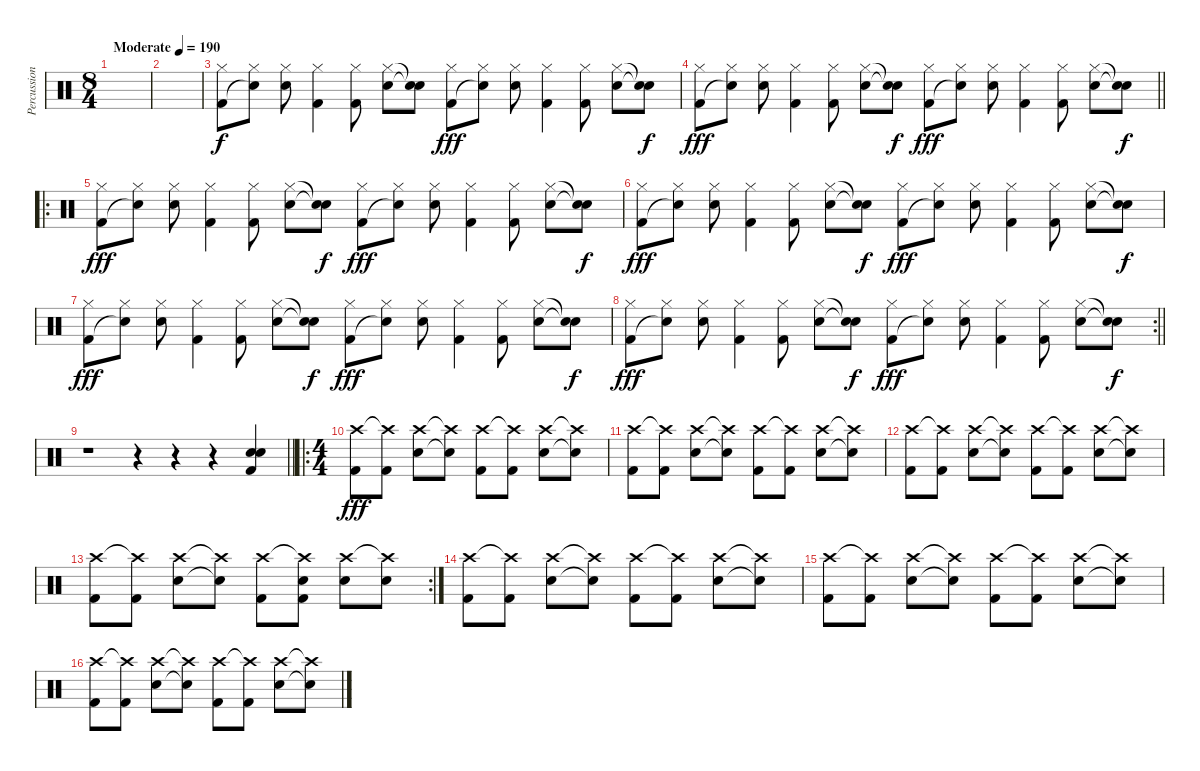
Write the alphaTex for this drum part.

\track ("Percussion" "Percussion") {instrument percussion}
\staff {score}
\articulation defaults
\ts (8 4)
\section ("" "")
\tempo (190 "Moderate")
\clef neutral
\ks c
|
|
("Hi-Hat (closed)" "Kick (hit) 2").8 ("Hi-Hat (closed)" "Snare (hit)"{t}).8 ("Hi-Hat (closed)" "Snare (hit) 2").8 ("Hi-Hat (closed)" "Kick (hit) 2").4 ("Hi-Hat (closed)" "Kick (hit) 2").8 ("Hi-Hat (closed)" "Snare (hit) 2").8 ("Snare (hit)"{t} "Snare (hit)"{t}).8{dy f} ("Hi-Hat (closed)" "Kick (hit) 2").8{dy fff} ("Hi-Hat (closed)" "Snare (hit)"{t}).8 ("Hi-Hat (closed)" "Snare (hit) 2").8 ("Hi-Hat (closed)" "Kick (hit) 2").4 ("Hi-Hat (closed)" "Kick (hit) 2").8 ("Hi-Hat (closed)" "Snare (hit) 2").8 ("Snare (hit)"{t} "Snare (hit)"{t}).8{dy f} |
\barLineRight lightlight
("Hi-Hat (closed)" "Kick (hit) 2").8{dy fff} ("Hi-Hat (closed)" "Snare (hit)"{t}).8 ("Hi-Hat (closed)" "Snare (hit) 2").8 ("Hi-Hat (closed)" "Kick (hit) 2").4 ("Hi-Hat (closed)" "Kick (hit) 2").8 ("Hi-Hat (closed)" "Snare (hit) 2").8 ("Snare (hit)"{t} "Snare (hit)"{t}).8{dy f} ("Hi-Hat (closed)" "Kick (hit) 2").8{dy fff} ("Hi-Hat (closed)" "Snare (hit)"{t}).8 ("Hi-Hat (closed)" "Snare (hit) 2").8 ("Hi-Hat (closed)" "Kick (hit) 2").4 ("Hi-Hat (closed)" "Kick (hit) 2").8 ("Hi-Hat (closed)" "Snare (hit) 2").8 ("Snare (hit)"{t} "Snare (hit)"{t}).8{dy f} |
\ro
\section ("" "")
("Hi-Hat (closed)" "Kick (hit) 2").8{dy fff} ("Hi-Hat (closed)" "Snare (hit)"{t}).8 ("Hi-Hat (closed)" "Snare (hit) 2").8 ("Hi-Hat (closed)" "Kick (hit) 2").4 ("Hi-Hat (closed)" "Kick (hit) 2").8 ("Hi-Hat (closed)" "Snare (hit) 2").8 ("Snare (hit)"{t} "Snare (hit)"{t}).8{dy f} ("Hi-Hat (closed)" "Kick (hit) 2").8{dy fff} ("Hi-Hat (closed)" "Snare (hit)"{t}).8 ("Hi-Hat (closed)" "Snare (hit) 2").8 ("Hi-Hat (closed)" "Kick (hit) 2").4 ("Hi-Hat (closed)" "Kick (hit) 2").8 ("Hi-Hat (closed)" "Snare (hit) 2").8 ("Snare (hit)"{t} "Snare (hit)"{t}).8{dy f} |
("Hi-Hat (closed)" "Kick (hit) 2").8{dy fff} ("Hi-Hat (closed)" "Snare (hit)"{t}).8 ("Hi-Hat (closed)" "Snare (hit) 2").8 ("Hi-Hat (closed)" "Kick (hit) 2").4 ("Hi-Hat (closed)" "Kick (hit) 2").8 ("Hi-Hat (closed)" "Snare (hit) 2").8 ("Snare (hit)"{t} "Snare (hit)"{t}).8{dy f} ("Hi-Hat (closed)" "Kick (hit) 2").8{dy fff} ("Hi-Hat (closed)" "Snare (hit)"{t}).8 ("Hi-Hat (closed)" "Snare (hit) 2").8 ("Hi-Hat (closed)" "Kick (hit) 2").4 ("Hi-Hat (closed)" "Kick (hit) 2").8 ("Hi-Hat (closed)" "Snare (hit) 2").8 ("Snare (hit)"{t} "Snare (hit)"{t}).8{dy f} |
("Hi-Hat (closed)" "Kick (hit) 2").8{dy fff} ("Hi-Hat (closed)" "Snare (hit)"{t}).8 ("Hi-Hat (closed)" "Snare (hit) 2").8 ("Hi-Hat (closed)" "Kick (hit) 2").4 ("Hi-Hat (closed)" "Kick (hit) 2").8 ("Hi-Hat (closed)" "Snare (hit) 2").8 ("Snare (hit)"{t} "Snare (hit)"{t}).8{dy f} ("Hi-Hat (closed)" "Kick (hit) 2").8{dy fff} ("Hi-Hat (closed)" "Snare (hit)"{t}).8 ("Hi-Hat (closed)" "Snare (hit) 2").8 ("Hi-Hat (closed)" "Kick (hit) 2").4 ("Hi-Hat (closed)" "Kick (hit) 2").8 ("Hi-Hat (closed)" "Snare (hit) 2").8 ("Snare (hit)"{t} "Snare (hit)"{t}).8{dy f} |
\rc 2
\barLineRight lightlight
("Hi-Hat (closed)" "Kick (hit) 2").8{dy fff} ("Hi-Hat (closed)" "Snare (hit)"{t}).8 ("Hi-Hat (closed)" "Snare (hit) 2").8 ("Hi-Hat (closed)" "Kick (hit) 2").4 ("Hi-Hat (closed)" "Kick (hit) 2").8 ("Hi-Hat (closed)" "Snare (hit) 2").8 ("Snare (hit)"{t} "Snare (hit)"{t}).8{dy f} ("Hi-Hat (closed)" "Kick (hit) 2").8{dy fff} ("Hi-Hat (closed)" "Snare (hit)"{t}).8 ("Hi-Hat (closed)" "Snare (hit) 2").8 ("Hi-Hat (closed)" "Kick (hit) 2").4 ("Hi-Hat (closed)" "Kick (hit) 2").8 ("Hi-Hat (closed)" "Snare (hit) 2").8 ("Snare (hit)"{t} "Snare (hit)"{t}).8{dy f} |
\section ("" "")
\barLineRight lightlight
r.1 r.4 r.4 r.4 ("Electric Snare (hit)" "Snare (hit) 2" "Kick (hit) 2").4 |
\ro
\ts (4 4)
\section ("" "")
("Crash high (hit)" "Kick (hit) 2").8{dy fff} ("Crash high (hit)"{t} "Kick (hit) 2").8 ("Crash high (hit)" "Snare (hit) 2").8 ("Crash high (hit)"{t} "Snare (hit)"{t}).8 ("Crash high (hit)" "Kick (hit) 2").8 ("Crash high (hit)"{t} "Kick (hit) 2").8 ("Crash high (hit)" "Snare (hit) 2").8 ("Crash high (hit)"{t} "Snare (hit)"{t}).8 |
("Crash high (hit)" "Kick (hit) 2").8 ("Crash high (hit)"{t} "Kick (hit) 2").8 ("Crash high (hit)" "Snare (hit) 2").8 ("Crash high (hit)"{t} "Snare (hit)"{t}).8 ("Crash high (hit)" "Kick (hit) 2").8 ("Crash high (hit)"{t} "Kick (hit) 2").8 ("Crash high (hit)" "Snare (hit) 2").8 ("Crash high (hit)"{t} "Snare (hit)"{t}).8 |
("Crash high (hit)" "Kick (hit) 2").8 ("Crash high (hit)"{t} "Kick (hit) 2").8 ("Crash high (hit)" "Snare (hit) 2").8 ("Crash high (hit)"{t} "Snare (hit)"{t}).8 ("Crash high (hit)" "Kick (hit) 2").8 ("Crash high (hit)"{t} "Kick (hit) 2").8 ("Crash high (hit)" "Snare (hit) 2").8 ("Crash high (hit)"{t} "Snare (hit)"{t}).8 |
\rc 2
("Crash high (hit)" "Kick (hit) 2").8 ("Crash high (hit)"{t} "Kick (hit) 2").8 ("Crash high (hit)" "Snare (hit) 2").8 ("Crash high (hit)"{t} "Snare (hit)"{t}).8 ("Crash high (hit)" "Kick (hit) 2").8 ("Crash high (hit)"{t} "Snare (hit) 2" "Kick (hit) 2").8 ("Crash high (hit)" "Snare (hit) 2").8 ("Crash high (hit)"{t} "Snare (hit) 2").8 |
("Crash high (hit)" "Kick (hit) 2").8 ("Crash high (hit)"{t} "Kick (hit) 2").8 ("Crash high (hit)" "Snare (hit) 2").8 ("Crash high (hit)"{t} "Snare (hit)"{t}).8 ("Crash high (hit)" "Kick (hit) 2").8 ("Crash high (hit)"{t} "Kick (hit) 2").8 ("Crash high (hit)" "Snare (hit) 2").8 ("Crash high (hit)"{t} "Snare (hit)"{t}).8 |
("Crash high (hit)" "Kick (hit) 2").8 ("Crash high (hit)"{t} "Kick (hit) 2").8 ("Crash high (hit)" "Snare (hit) 2").8 ("Crash high (hit)"{t} "Snare (hit)"{t}).8 ("Crash high (hit)" "Kick (hit) 2").8 ("Crash high (hit)"{t} "Kick (hit) 2").8 ("Crash high (hit)" "Snare (hit) 2").8 ("Crash high (hit)"{t} "Snare (hit)"{t}).8 |
("Crash high (hit)" "Kick (hit) 2").8 ("Crash high (hit)"{t} "Kick (hit) 2").8 ("Crash high (hit)" "Snare (hit) 2").8 ("Crash high (hit)"{t} "Snare (hit)"{t}).8 ("Crash high (hit)" "Kick (hit) 2").8 ("Crash high (hit)"{t} "Kick (hit) 2").8 ("Crash high (hit)" "Snare (hit) 2").8 ("Crash high (hit)"{t} "Snare (hit)"{t}).8
